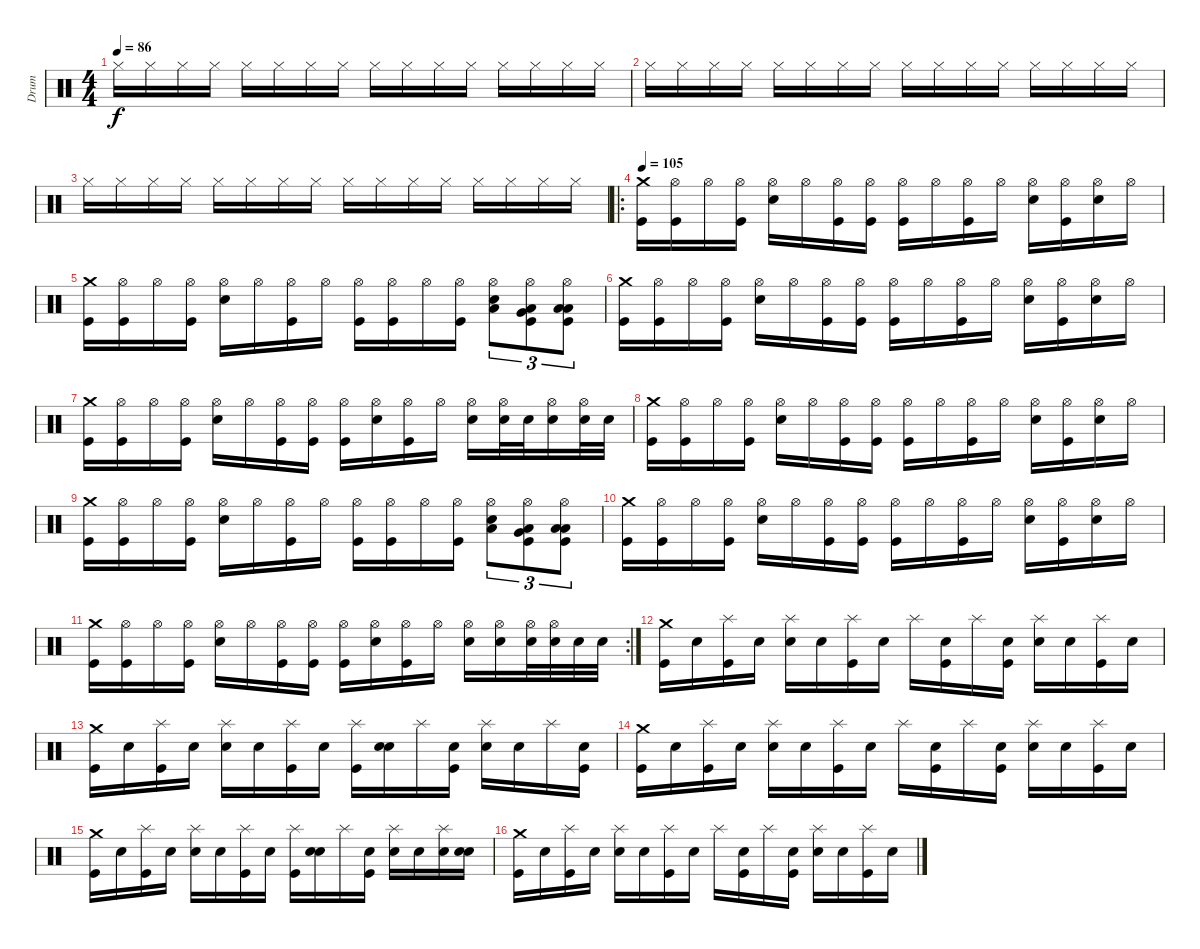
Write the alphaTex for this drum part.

\track ("Drum" "Drum") {instrument percussion}
\staff {score}
\articulation defaults
\ts (4 4)
\tempo 86
\clef neutral
\ks c "Hi-Hat (closed)".16{dy f} "Hi-Hat (closed)".16 "Hi-Hat (closed)".16 "Hi-Hat (closed)".16 "Hi-Hat (closed)".16 "Hi-Hat (closed)".16 "Hi-Hat (closed)".16 "Hi-Hat (closed)".16 "Hi-Hat (closed)".16 "Hi-Hat (closed)".16 "Hi-Hat (closed)".16 "Hi-Hat (closed)".16 "Hi-Hat (closed)".16 "Hi-Hat (closed)".16 "Hi-Hat (closed)".16 "Hi-Hat (closed)".16
|
"Hi-Hat (closed)".16 "Hi-Hat (closed)".16 "Hi-Hat (closed)".16 "Hi-Hat (closed)".16 "Hi-Hat (closed)".16 "Hi-Hat (closed)".16 "Hi-Hat (closed)".16 "Hi-Hat (closed)".16 "Hi-Hat (closed)".16 "Hi-Hat (closed)".16 "Hi-Hat (closed)".16 "Hi-Hat (closed)".16 "Hi-Hat (closed)".16 "Hi-Hat (closed)".16 "Hi-Hat (closed)".16 "Hi-Hat (closed)".16 |
"Hi-Hat (closed)".16 "Hi-Hat (closed)".16 "Hi-Hat (closed)".16 "Hi-Hat (closed)".16 "Hi-Hat (closed)".16 "Hi-Hat (closed)".16 "Hi-Hat (closed)".16 "Hi-Hat (closed)".16 "Hi-Hat (closed)".16 "Hi-Hat (closed)".16 "Hi-Hat (closed)".16 "Hi-Hat (closed)".16 "Hi-Hat (closed)".16 "Hi-Hat (closed)".16 "Hi-Hat (closed)".16 "Hi-Hat (closed)".16 |
\ro
\tempo 105
("Crash medium (hit)" "Kick (hit)").16 ("Hi-Hat (open)" "Kick (hit)").16 "Hi-Hat (open)".16 ("Hi-Hat (open)" "Kick (hit)").16 ("Hi-Hat (open)" "Electric Snare (hit)").16 "Hi-Hat (open)".16 ("Hi-Hat (open)" "Kick (hit)").16 ("Hi-Hat (open)" "Kick (hit)").16 ("Hi-Hat (open)" "Kick (hit)").16 "Hi-Hat (open)".16 ("Hi-Hat (open)" "Kick (hit)").16 "Hi-Hat (open)".16 ("Hi-Hat (open)" "Electric Snare (hit)").16 ("Hi-Hat (open)" "Kick (hit)").16 ("Hi-Hat (open)" "Electric Snare (hit)").16 "Hi-Hat (open)".16 |
("Crash medium (hit)" "Kick (hit)").16 ("Hi-Hat (open)" "Kick (hit)").16 "Hi-Hat (open)".16 ("Hi-Hat (open)" "Kick (hit)").16 ("Hi-Hat (open)" "Electric Snare (hit)").16 "Hi-Hat (open)".16 ("Hi-Hat (open)" "Kick (hit)").16 "Hi-Hat (open)".16 ("Hi-Hat (open)" "Kick (hit)").16 ("Hi-Hat (open)" "Kick (hit)").16 "Hi-Hat (open)".16 ("Hi-Hat (open)" "Kick (hit)").16 ("Hi-Hat (open)" "Low Tom (hit)" "Electric Snare (hit)").8{tu (3 2)} ("Hi-Hat (open)" "Very Low Tom (hit)" "Low Floor Tom (hit)" "Kick (hit)").8{tu (3 2)} ("Hi-Hat (open)" "Low Floor Tom (hit)" "Low Floor Tom (hit)" "Kick (hit)").8{tu (3 2)} |
("Crash medium (hit)" "Kick (hit)").16 ("Hi-Hat (open)" "Kick (hit)").16 "Hi-Hat (open)".16 ("Hi-Hat (open)" "Kick (hit)").16 ("Hi-Hat (open)" "Electric Snare (hit)").16 "Hi-Hat (open)".16 ("Hi-Hat (open)" "Kick (hit)").16 ("Hi-Hat (open)" "Kick (hit)").16 ("Hi-Hat (open)" "Kick (hit)").16 "Hi-Hat (open)".16 ("Hi-Hat (open)" "Kick (hit)").16 "Hi-Hat (open)".16 ("Hi-Hat (open)" "Electric Snare (hit)").16 ("Hi-Hat (open)" "Kick (hit)").16 ("Hi-Hat (open)" "Electric Snare (hit)").16 "Hi-Hat (open)".16 |
("Crash medium (hit)" "Kick (hit)").16 ("Hi-Hat (open)" "Kick (hit)").16 "Hi-Hat (open)".16 ("Hi-Hat (open)" "Kick (hit)").16 ("Hi-Hat (open)" "Electric Snare (hit)").16 "Hi-Hat (open)".16 ("Hi-Hat (open)" "Kick (hit)").16 ("Hi-Hat (open)" "Kick (hit)").16 ("Hi-Hat (open)" "Kick (hit)").16 ("Hi-Hat (open)" "Electric Snare (hit)").16 ("Hi-Hat (open)" "Kick (hit)").16 "Hi-Hat (open)".16 ("Hi-Hat (open)" "Electric Snare (hit)").16 ("Hi-Hat (open)" "Electric Snare (hit)").32 "Electric Snare (hit)".32 ("Hi-Hat (open)" "Electric Snare (hit)").16 ("Hi-Hat (open)" "Electric Snare (hit)").32 "Electric Snare (hit)".32 |
("Crash medium (hit)" "Kick (hit)").16 ("Hi-Hat (open)" "Kick (hit)").16 "Hi-Hat (open)".16 ("Hi-Hat (open)" "Kick (hit)").16 ("Hi-Hat (open)" "Electric Snare (hit)").16 "Hi-Hat (open)".16 ("Hi-Hat (open)" "Kick (hit)").16 ("Hi-Hat (open)" "Kick (hit)").16 ("Hi-Hat (open)" "Kick (hit)").16 "Hi-Hat (open)".16 ("Hi-Hat (open)" "Kick (hit)").16 "Hi-Hat (open)".16 ("Hi-Hat (open)" "Electric Snare (hit)").16 ("Hi-Hat (open)" "Kick (hit)").16 ("Hi-Hat (open)" "Electric Snare (hit)").16 "Hi-Hat (open)".16 |
("Crash medium (hit)" "Kick (hit)").16 ("Hi-Hat (open)" "Kick (hit)").16 "Hi-Hat (open)".16 ("Hi-Hat (open)" "Kick (hit)").16 ("Hi-Hat (open)" "Electric Snare (hit)").16 "Hi-Hat (open)".16 ("Hi-Hat (open)" "Kick (hit)").16 "Hi-Hat (open)".16 ("Hi-Hat (open)" "Kick (hit)").16 ("Hi-Hat (open)" "Kick (hit)").16 "Hi-Hat (open)".16 ("Hi-Hat (open)" "Kick (hit)").16 ("Hi-Hat (open)" "Low Tom (hit)" "Electric Snare (hit)").8{tu (3 2)} ("Hi-Hat (open)" "Very Low Tom (hit)" "Low Floor Tom (hit)" "Kick (hit)").8{tu (3 2)} ("Hi-Hat (open)" "Low Floor Tom (hit)" "Low Floor Tom (hit)" "Kick (hit)").8{tu (3 2)} |
("Crash medium (hit)" "Kick (hit)").16 ("Hi-Hat (open)" "Kick (hit)").16 "Hi-Hat (open)".16 ("Hi-Hat (open)" "Kick (hit)").16 ("Hi-Hat (open)" "Electric Snare (hit)").16 "Hi-Hat (open)".16 ("Hi-Hat (open)" "Kick (hit)").16 ("Hi-Hat (open)" "Kick (hit)").16 ("Hi-Hat (open)" "Kick (hit)").16 "Hi-Hat (open)".16 ("Hi-Hat (open)" "Kick (hit)").16 "Hi-Hat (open)".16 ("Hi-Hat (open)" "Electric Snare (hit)").16 ("Hi-Hat (open)" "Kick (hit)").16 ("Hi-Hat (open)" "Electric Snare (hit)").16 "Hi-Hat (open)".16 |
\rc 2
("Crash medium (hit)" "Kick (hit)").16 ("Hi-Hat (open)" "Kick (hit)").16 "Hi-Hat (open)".16 ("Hi-Hat (open)" "Kick (hit)").16 ("Hi-Hat (open)" "Electric Snare (hit)").16 "Hi-Hat (open)".16 ("Hi-Hat (open)" "Kick (hit)").16 ("Hi-Hat (open)" "Kick (hit)").16 ("Hi-Hat (open)" "Kick (hit)").16 ("Hi-Hat (open)" "Electric Snare (hit)").16 ("Hi-Hat (open)" "Kick (hit)").16 "Hi-Hat (open)".16 ("Hi-Hat (open)" "Electric Snare (hit)").16 ("Hi-Hat (open)" "Electric Snare (hit)").16 ("Hi-Hat (open)" "Electric Snare (hit)").32 ("Hi-Hat (open)" "Electric Snare (hit)").32 "Electric Snare (hit)".32 "Electric Snare (hit)".32 |
("Crash medium (hit)" "Kick (hit)").16 "Snare (hit)".16 ("Splash (hit)" "Kick (hit)").16 "Snare (hit)".16 ("Splash (hit)" "Electric Snare (hit)").16 "Snare (hit)".16 ("Splash (hit)" "Kick (hit)").16 "Snare (hit)".16 "Splash (hit)".16 ("Snare (hit)" "Kick (hit)").16 "Splash (hit)".16 ("Snare (hit)" "Kick (hit)").16 ("Splash (hit)" "Electric Snare (hit)").16 "Snare (hit)".16 ("Splash (hit)" "Kick (hit)").16 "Snare (hit)".16 |
("Crash medium (hit)" "Kick (hit)").16 "Snare (hit)".16 ("Splash (hit)" "Kick (hit)").16 "Snare (hit)".16 ("Splash (hit)" "Electric Snare (hit)").16 "Snare (hit)".16 ("Splash (hit)" "Kick (hit)").16 "Snare (hit)".16 ("Splash (hit)" "Kick (hit)").16 ("Snare (hit)" "Electric Snare (hit)").16 "Splash (hit)".16 ("Snare (hit)" "Kick (hit)").16 ("Splash (hit)" "Electric Snare (hit)").16 "Snare (hit)".16 "Splash (hit)".16 ("Snare (hit)" "Kick (hit)").16 |
("Crash medium (hit)" "Kick (hit)").16 "Snare (hit)".16 ("Splash (hit)" "Kick (hit)").16 "Snare (hit)".16 ("Splash (hit)" "Electric Snare (hit)").16 "Snare (hit)".16 ("Splash (hit)" "Kick (hit)").16 "Snare (hit)".16 "Splash (hit)".16 ("Snare (hit)" "Kick (hit)").16 "Splash (hit)".16 ("Snare (hit)" "Kick (hit)").16 ("Splash (hit)" "Electric Snare (hit)").16 "Snare (hit)".16 ("Splash (hit)" "Kick (hit)").16 "Snare (hit)".16 |
("Crash medium (hit)" "Kick (hit)").16 "Snare (hit)".16 ("Splash (hit)" "Kick (hit)").16 "Snare (hit)".16 ("Splash (hit)" "Electric Snare (hit)").16 "Snare (hit)".16 ("Splash (hit)" "Kick (hit)").16 "Snare (hit)".16 ("Splash (hit)" "Kick (hit)").16 ("Snare (hit)" "Electric Snare (hit)").16 "Splash (hit)".16 ("Snare (hit)" "Kick (hit)").16 ("Splash (hit)" "Electric Snare (hit)").16 "Snare (hit)".16 ("Splash (hit)" "Electric Snare (hit)").16 ("Snare (hit)" "Electric Snare (hit)").16 |
("Crash medium (hit)" "Kick (hit)").16 "Snare (hit)".16 ("Splash (hit)" "Kick (hit)").16 "Snare (hit)".16 ("Splash (hit)" "Electric Snare (hit)").16 "Snare (hit)".16 ("Splash (hit)" "Kick (hit)").16 "Snare (hit)".16 "Splash (hit)".16 ("Snare (hit)" "Kick (hit)").16 "Splash (hit)".16 ("Snare (hit)" "Kick (hit)").16 ("Splash (hit)" "Electric Snare (hit)").16 "Snare (hit)".16 ("Splash (hit)" "Kick (hit)").16 "Snare (hit)".16
